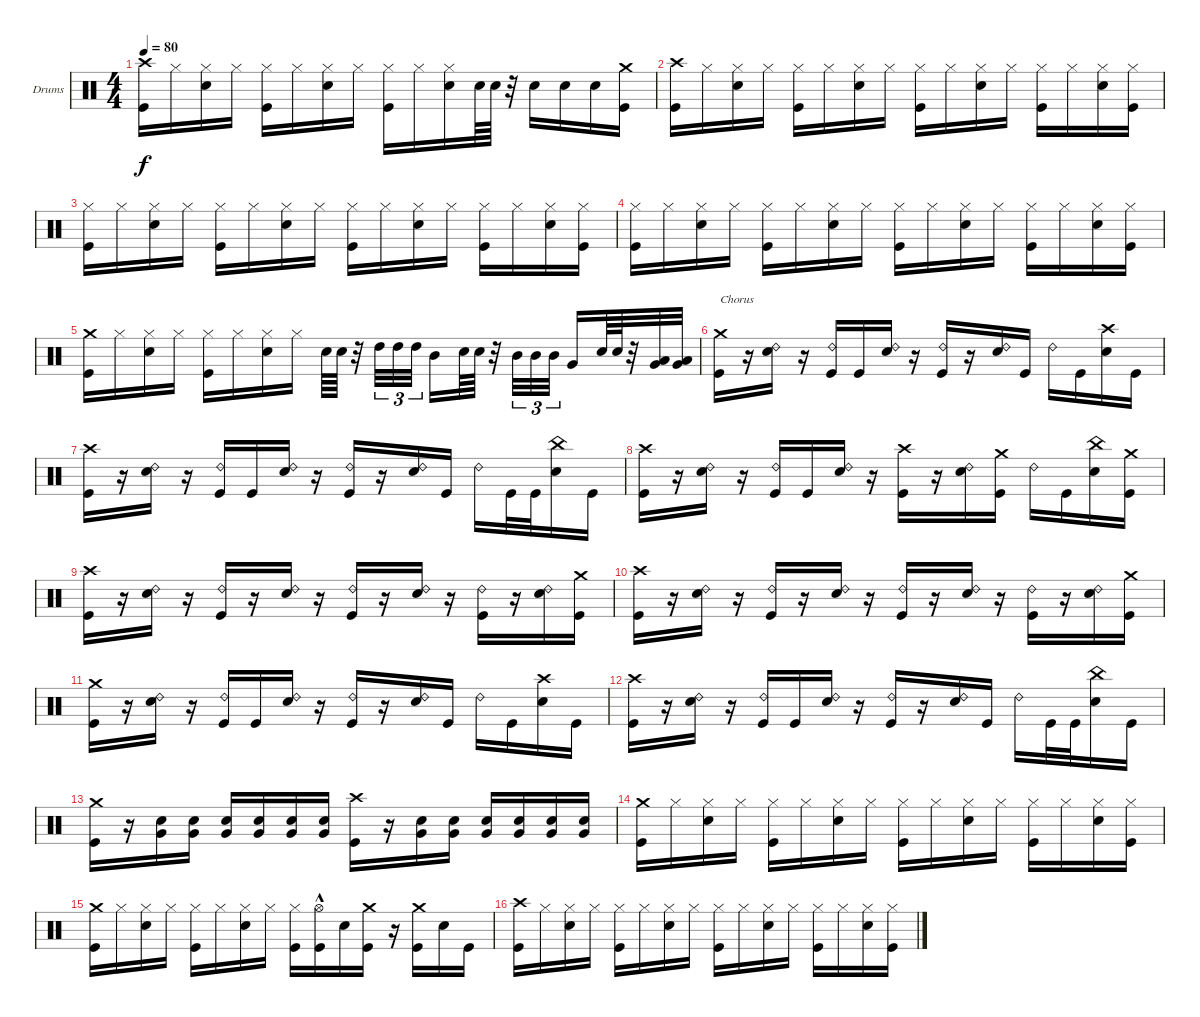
\defaultSystemsLayout 4
\bracketExtendMode groupsimilarinstruments
\firstSystemTrackNameOrientation horizontal
\otherSystemsTrackNameOrientation horizontal
\track ("Francesco Jovino" "Drums") {instrument percussion}
\staff {score}
\articulation defaults
\ts (4 4)
\tempo 80
\clef neutral
\ks c
("Kick (hit)" "Crash high (hit)").16{dy f} "Hi-Hat (closed)".16 ("Snare (hit) 2" "Hi-Hat (closed)").16 "Hi-Hat (closed)".16 ("Kick (hit)" "Hi-Hat (closed)").16 "Hi-Hat (closed)".16 ("Snare (hit) 2" "Hi-Hat (closed)").16 "Hi-Hat (closed)".16 ("Hi-Hat (closed)" "Kick (hit)").16 "Hi-Hat (closed)".16 ("Snare (hit) 2" "Hi-Hat (closed)").16 "Snare (hit) 2".64 "Snare (hit) 2".64 r.32 "Snare (hit) 2".16 "Snare (hit) 2".16 "Snare (hit) 2".16 ("Kick (hit)" "Crash medium (hit)").16 |
("Kick (hit)" "Crash high (hit)").16 "Hi-Hat (closed)".16 ("Snare (hit) 2" "Hi-Hat (closed)").16 "Hi-Hat (closed)".16 ("Kick (hit)" "Hi-Hat (closed)").16 "Hi-Hat (closed)".16 ("Snare (hit) 2" "Hi-Hat (closed)").16 "Hi-Hat (closed)".16 ("Kick (hit)" "Hi-Hat (closed)").16 "Hi-Hat (closed)".16 ("Snare (hit) 2" "Hi-Hat (closed)").16 "Hi-Hat (closed)".16 ("Kick (hit)" "Hi-Hat (closed)").16 "Hi-Hat (closed)".16 ("Snare (hit) 2" "Hi-Hat (closed)").16 ("Kick (hit)" "Hi-Hat (closed)").16 |
("Kick (hit)" "Hi-Hat (closed)").16 "Hi-Hat (closed)".16 ("Snare (hit) 2" "Hi-Hat (closed)").16 "Hi-Hat (closed)".16 ("Kick (hit)" "Hi-Hat (closed)").16 "Hi-Hat (closed)".16 ("Snare (hit) 2" "Hi-Hat (closed)").16 "Hi-Hat (closed)".16 ("Kick (hit)" "Hi-Hat (closed)").16 "Hi-Hat (closed)".16 ("Snare (hit) 2" "Hi-Hat (closed)").16 "Hi-Hat (closed)".16 ("Kick (hit)" "Hi-Hat (closed)").16 "Hi-Hat (closed)".16 ("Snare (hit) 2" "Hi-Hat (closed)").16 ("Kick (hit)" "Hi-Hat (closed)").16 |
("Kick (hit)" "Hi-Hat (closed)").16 "Hi-Hat (closed)".16 ("Snare (hit) 2" "Hi-Hat (closed)").16 "Hi-Hat (closed)".16 ("Kick (hit)" "Hi-Hat (closed)").16 "Hi-Hat (closed)".16 ("Snare (hit) 2" "Hi-Hat (closed)").16 "Hi-Hat (closed)".16 ("Kick (hit)" "Hi-Hat (closed)").16 "Hi-Hat (closed)".16 ("Snare (hit) 2" "Hi-Hat (closed)").16 "Hi-Hat (closed)".16 ("Kick (hit)" "Hi-Hat (closed)").16 "Hi-Hat (closed)".16 ("Snare (hit) 2" "Hi-Hat (closed)").16 ("Kick (hit)" "Hi-Hat (closed)").16 |
("Kick (hit)" "Crash medium (hit)").16 "Hi-Hat (closed)".16 ("Snare (hit) 2" "Hi-Hat (closed)").16 "Hi-Hat (closed)".16 ("Kick (hit)" "Hi-Hat (closed)").16 "Hi-Hat (closed)".16 ("Snare (hit) 2" "Hi-Hat (closed)").16 "Hi-Hat (closed)".16 "Snare (hit) 2".64 "Snare (hit) 2".64 r.32 "High Tom (hit)".32{tu (3 2)} "High Tom (hit)".32{tu (3 2)} "High Tom (hit)".32{tu (3 2)} "Mid Tom (hit)".16 "Snare (hit) 2".64 "Snare (hit) 2".64 r.32 "Mid Tom (hit)".32{tu (3 2)} "Mid Tom (hit)".32{tu (3 2)} "Mid Tom (hit)".32{tu (3 2)} "Very Low Tom (hit)".16 "Snare (hit) 2".64 "Snare (hit) 2".64 r.32 ("Low Tom (hit)" "Very Low Tom (hit)").32 ("Low Tom (hit)" "Very Low Tom (hit)").32 |
("Kick (hit)" "Crash medium (hit)").16{txt "Chorus"} r.16 ("Snare (hit) 2" "Ride (bell) 2").16 r.16 ("Kick (hit)" "Ride (bell) 2").16 "Kick (hit)".16 ("Snare (hit) 2" "Ride (bell) 2").16 r.16 ("Kick (hit)" "Ride (bell) 2").16 r.16 ("Ride (bell) 2" "Snare (hit) 2").16 "Kick (hit)".16 "Ride (bell) 2".16 "Kick (hit)".16 ("Snare (hit) 2" "Crash high (hit)").16 "Kick (hit)".16 |
("Kick (hit)" "Crash high (hit)").16 r.16 ("Snare (hit) 2" "Ride (bell) 2").16 r.16 ("Kick (hit)" "Ride (bell) 2").16 "Kick (hit)".16 ("Snare (hit) 2" "Ride (bell) 2").16 r.16 ("Kick (hit)" "Ride (bell) 2").16 r.16 ("Ride (bell) 2" "Snare (hit) 2").16 "Kick (hit)".16 "Ride (bell) 2".16 "Kick (hit)".32 "Kick (hit)".32 ("Snare (hit) 2" "China (hit)").16 "Kick (hit)".16 |
("Kick (hit)" "Crash high (hit)").16 r.16 ("Snare (hit) 2" "Ride (bell) 2").16 r.16 ("Kick (hit)" "Ride (bell) 2").16 "Kick (hit)".16 ("Snare (hit) 2" "Ride (bell) 2").16 r.16 ("Kick (hit)" "Crash high (hit)").16 r.16 ("Ride (bell) 2" "Snare (hit) 2").16 ("Kick (hit)" "Crash medium (hit)").16 "Ride (bell) 2".16 "Kick (hit)".16 ("Snare (hit) 2" "China (hit)").16 ("Kick (hit)" "Crash medium (hit)").16 |
("Kick (hit)" "Crash high (hit)").16 r.16 ("Snare (hit) 2" "Ride (bell) 2").16 r.16 ("Kick (hit)" "Ride (bell) 2").16 r.16 ("Snare (hit) 2" "Ride (bell) 2").16 r.16 ("Kick (hit)" "Ride (bell) 2").16 r.16 ("Snare (hit) 2" "Ride (bell) 2").16 r.16 ("Kick (hit)" "Ride (bell) 2").16 r.16 ("Snare (hit) 2" "Ride (bell) 2").16 ("Kick (hit)" "Crash medium (hit)").16 |
("Kick (hit)" "Crash high (hit)").16 r.16 ("Snare (hit) 2" "Ride (bell) 2").16 r.16 ("Kick (hit)" "Ride (bell) 2").16 r.16 ("Snare (hit) 2" "Ride (bell) 2").16 r.16 ("Kick (hit)" "Ride (bell) 2").16 r.16 ("Snare (hit) 2" "Ride (bell) 2").16 r.16 ("Kick (hit)" "Ride (bell) 2").16 r.16 ("Snare (hit) 2" "Ride (bell) 2").16 ("Kick (hit)" "Crash medium (hit)").16 |
("Kick (hit)" "Crash medium (hit)").16 r.16 ("Snare (hit) 2" "Ride (bell) 2").16 r.16 ("Kick (hit)" "Ride (bell) 2").16 "Kick (hit)".16 ("Snare (hit) 2" "Ride (bell) 2").16 r.16 ("Kick (hit)" "Ride (bell) 2").16 r.16 ("Ride (bell) 2" "Snare (hit) 2").16 "Kick (hit)".16 "Ride (bell) 2".16 "Kick (hit)".16 ("Snare (hit) 2" "Crash high (hit)").16 "Kick (hit)".16 |
("Kick (hit)" "Crash high (hit)").16 r.16 ("Snare (hit) 2" "Ride (bell) 2").16 r.16 ("Kick (hit)" "Ride (bell) 2").16 "Kick (hit)".16 ("Snare (hit) 2" "Ride (bell) 2").16 r.16 ("Kick (hit)" "Ride (bell) 2").16 r.16 ("Ride (bell) 2" "Snare (hit) 2").16 "Kick (hit)".16 "Ride (bell) 2".16 "Kick (hit)".32 "Kick (hit)".32 ("Snare (hit) 2" "China (hit)").16 "Kick (hit)".16 |
("Kick (hit)" "Crash medium (hit)").16 r.16 ("Snare (hit) 2" "Very Low Tom (hit)").16 ("Snare (hit) 2" "Very Low Tom (hit)").16 ("Snare (hit) 2" "Very Low Tom (hit)").16 ("Snare (hit) 2" "Very Low Tom (hit)").16 ("Snare (hit) 2" "Very Low Tom (hit)").16 ("Snare (hit) 2" "Very Low Tom (hit)").16 ("Kick (hit)" "Crash high (hit)").16 r.16 ("Very Low Tom (hit)" "Snare (hit) 2").16 ("Very Low Tom (hit)" "Snare (hit) 2").16 ("Very Low Tom (hit)" "Snare (hit) 2").16 ("Very Low Tom (hit)" "Snare (hit) 2").16 ("Very Low Tom (hit)" "Snare (hit) 2").16 ("Very Low Tom (hit)" "Snare (hit) 2").16 |
("Kick (hit)" "Crash medium (hit)").16 "Hi-Hat (closed)".16 ("Snare (hit) 2" "Hi-Hat (closed)").16 "Hi-Hat (closed)".16 ("Kick (hit)" "Hi-Hat (closed)").16 "Hi-Hat (closed)".16 ("Snare (hit) 2" "Hi-Hat (closed)").16 "Hi-Hat (closed)".16 ("Kick (hit)" "Hi-Hat (closed)").16 "Hi-Hat (closed)".16 ("Snare (hit) 2" "Hi-Hat (closed)").16 "Hi-Hat (closed)".16 ("Kick (hit)" "Hi-Hat (closed)").16 "Hi-Hat (closed)".16 ("Snare (hit) 2" "Hi-Hat (closed)").16 ("Kick (hit)" "Hi-Hat (closed)").16 |
("Kick (hit)" "Crash medium (hit)").16 "Hi-Hat (closed)".16 ("Snare (hit) 2" "Hi-Hat (closed)").16 "Hi-Hat (closed)".16 ("Kick (hit)" "Hi-Hat (closed)").16 "Hi-Hat (closed)".16 ("Snare (hit) 2" "Hi-Hat (closed)").16 "Hi-Hat (closed)".16 ("Kick (hit)" "Hi-Hat (closed)").16 ("Hi-Hat (open)"{hac} "Kick (hit)").16 "Snare (hit) 2".16 ("Kick (hit)" "Crash medium (hit)").16 r.16 ("Kick (hit)" "Crash medium (hit)").16 "Snare (hit) 2".16 "Kick (hit)".16 |
("Kick (hit)" "Crash high (hit)").16 "Hi-Hat (closed)".16 ("Snare (hit) 2" "Hi-Hat (closed)").16 "Hi-Hat (closed)".16 ("Kick (hit)" "Hi-Hat (closed)").16 "Hi-Hat (closed)".16 ("Snare (hit) 2" "Hi-Hat (closed)").16 "Hi-Hat (closed)".16 ("Kick (hit)" "Hi-Hat (closed)").16 "Hi-Hat (closed)".16 ("Snare (hit) 2" "Hi-Hat (closed)").16 "Hi-Hat (closed)".16 ("Kick (hit)" "Hi-Hat (closed)").16 "Hi-Hat (closed)".16 ("Snare (hit) 2" "Hi-Hat (closed)").16 ("Kick (hit)" "Hi-Hat (closed)").16
